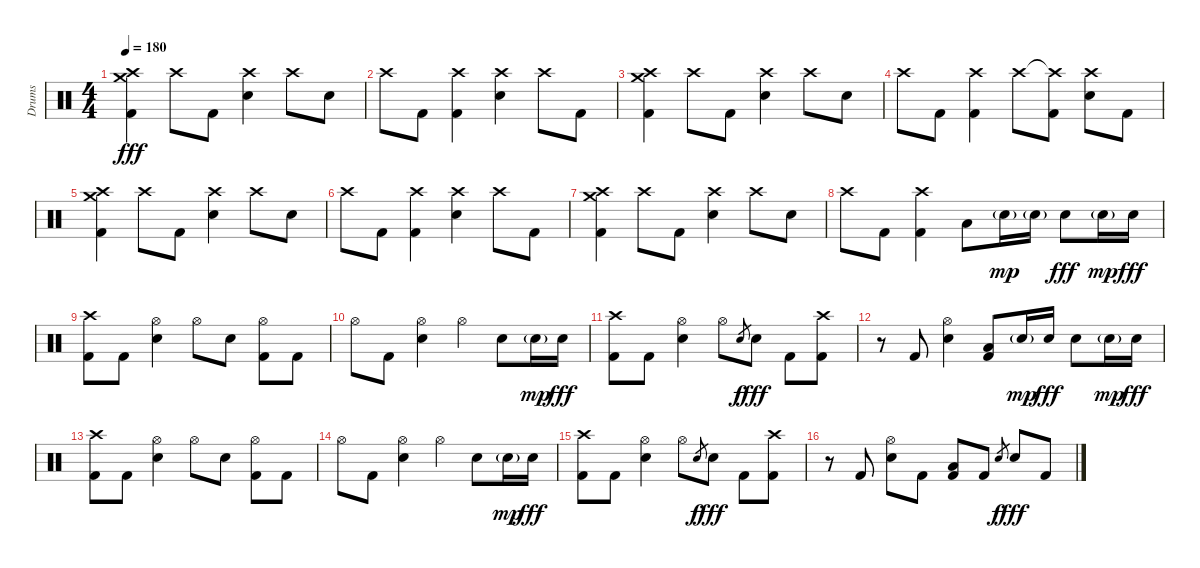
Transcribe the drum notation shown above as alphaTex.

\track ("Drums" "Drums") {instrument percussion}
\staff {score}
\articulation defaults
\ts (4 4)
\tempo 180
\clef neutral
\ks c
("Crash high (hit)" "Crash medium (hit)" "Kick (hit) 2").4{dy fff} "Crash high (hit)".8 "Kick (hit) 2".8 ("Crash high (hit)" "Electric Snare (hit)").4 "Crash high (hit)".8 "Electric Snare (hit)".8 |
"Crash high (hit)".8 "Kick (hit) 2".8 ("Crash high (hit)" "Kick (hit) 2").4 ("Crash high (hit)" "Electric Snare (hit)").4 "Crash high (hit)".8 "Kick (hit) 2".8 |
("Crash high (hit)" "Crash medium (hit)" "Kick (hit) 2").4 "Crash high (hit)".8 "Kick (hit) 2".8 ("Crash high (hit)" "Electric Snare (hit)").4 "Crash high (hit)".8 "Electric Snare (hit)".8 |
"Crash high (hit)".8 "Kick (hit) 2".8 ("Crash high (hit)" "Kick (hit) 2").4 "Crash high (hit)".8 ("Crash high (hit)"{t} "Kick (hit) 2").8 ("Crash high (hit)" "Electric Snare (hit)").8 "Kick (hit) 2".8 |
("Crash high (hit)" "Crash medium (hit)" "Kick (hit) 2").4 "Crash high (hit)".8 "Kick (hit) 2".8 ("Crash high (hit)" "Electric Snare (hit)").4 "Crash high (hit)".8 "Electric Snare (hit)".8 |
"Crash high (hit)".8 "Kick (hit) 2".8 ("Crash high (hit)" "Kick (hit) 2").4 ("Crash high (hit)" "Electric Snare (hit)").4 "Crash high (hit)".8 "Kick (hit) 2".8 |
("Crash high (hit)" "Crash medium (hit)" "Kick (hit) 2").4 "Crash high (hit)".8 "Kick (hit) 2".8 ("Crash high (hit)" "Electric Snare (hit)").4 "Crash high (hit)".8 "Electric Snare (hit)".8 |
"Crash high (hit)".8 "Kick (hit) 2".8 ("Crash high (hit)" "Kick (hit) 2").4 "Low Tom (hit)".8 "Electric Snare (hit)"{g}.16{dy mp} "Electric Snare (hit)"{g}.16 "Electric Snare (hit)".8{dy fff} "Electric Snare (hit)"{g}.16{dy mp} "Electric Snare (hit)".16{dy fff} |
("Crash high (hit)" "Kick (hit) 2").8 "Kick (hit) 2".8 ("Hi-Hat (open)" "Electric Snare (hit)").4 "Hi-Hat (open)".8 "Electric Snare (hit)".8 ("Hi-Hat (open)" "Kick (hit) 2").8 "Kick (hit) 2".8 |
"Hi-Hat (open)".8 "Kick (hit) 2".8 ("Hi-Hat (open)" "Electric Snare (hit)").4 "Hi-Hat (open)".4 "Electric Snare (hit)".8 "Electric Snare (hit)"{g}.16{dy mp} "Electric Snare (hit)".16{dy fff} |
("Crash high (hit)" "Kick (hit) 2").8 "Kick (hit) 2".8 ("Hi-Hat (open)" "Electric Snare (hit)").4 "Hi-Hat (open)".8 "Electric Snare (hit)".8{gr dy f} "Electric Snare (hit)".8{dy fff} "Kick (hit) 2".8 ("Crash high (hit)" "Kick (hit) 2").8 |
r.8 "Kick (hit) 2".8 ("Hi-Hat (open)" "Electric Snare (hit)").4 ("Low Tom (hit)" "Kick (hit) 2").8 "Electric Snare (hit)"{g}.16{dy mp} "Electric Snare (hit)".16{dy fff} "Electric Snare (hit)".8 "Electric Snare (hit)"{g}.16{dy mp} "Electric Snare (hit)".16{dy fff} |
("Crash high (hit)" "Kick (hit) 2").8 "Kick (hit) 2".8 ("Hi-Hat (open)" "Electric Snare (hit)").4 "Hi-Hat (open)".8 "Electric Snare (hit)".8 ("Hi-Hat (open)" "Kick (hit) 2").8 "Kick (hit) 2".8 |
"Hi-Hat (open)".8 "Kick (hit) 2".8 ("Hi-Hat (open)" "Electric Snare (hit)").4 "Hi-Hat (open)".4 "Electric Snare (hit)".8 "Electric Snare (hit)"{g}.16{dy mp} "Electric Snare (hit)".16{dy fff} |
("Crash high (hit)" "Kick (hit) 2").8 "Kick (hit) 2".8 ("Hi-Hat (open)" "Electric Snare (hit)").4 "Hi-Hat (open)".8 "Electric Snare (hit)".8{gr dy f} "Electric Snare (hit)".8{dy fff} "Kick (hit) 2".8 ("Crash high (hit)" "Kick (hit) 2").8 |
r.8 "Kick (hit) 2".8 ("Hi-Hat (open)" "Electric Snare (hit)").8 "Kick (hit) 2".8 ("Low Tom (hit)" "Kick (hit) 2").8 "Kick (hit) 2".8 "Electric Snare (hit)".8{gr dy f} "Electric Snare (hit)".8{dy fff} "Kick (hit) 2".8
